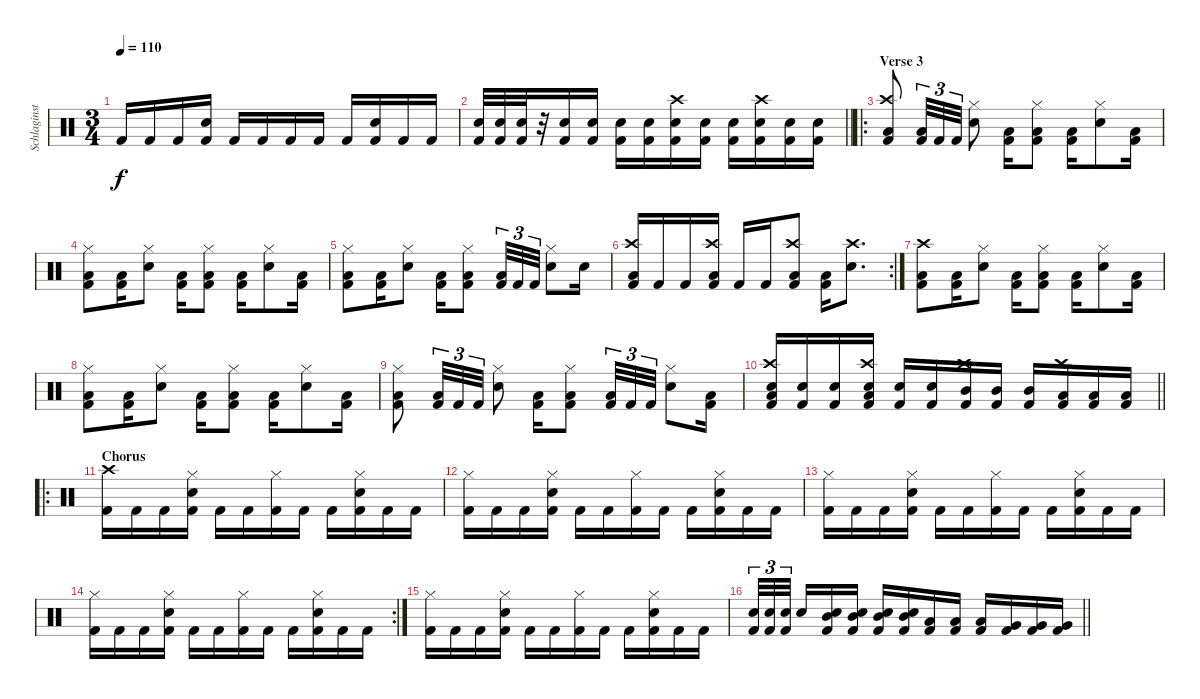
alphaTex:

\track ("Schlaginstrumente - Auswahl" "Schlaginst") {instrument percussion}
\staff {score}
\articulation defaults
\ts (3 4)
\tempo 110
\clef neutral
\ks c "Kick (hit) 2".16{dy f} "Kick (hit) 2".16 "Kick (hit) 2".16
("Snare (hit) 2" "Kick (hit) 2").16 "Kick (hit) 2".16 "Kick (hit) 2".16 "Kick (hit) 2".16 "Kick (hit) 2".16 "Kick (hit) 2".16 ("Snare (hit) 2" "Kick (hit) 2").16 "Kick (hit) 2".16 "Kick (hit) 2".16 |
\barLineRight lightlight
("Snare (hit) 2" "Kick (hit) 2").32 ("Snare (hit) 2" "Kick (hit) 2").32 ("Snare (hit) 2" "Kick (hit) 2").32 r.32 ("Snare (hit) 2" "Kick (hit) 2").16 ("Snare (hit) 2" "Kick (hit) 2").16 ("Snare (hit) 2" "Kick (hit) 2").16 ("Snare (hit) 2" "Kick (hit) 2").16 ("Crash high (hit)" "Snare (hit) 2" "Kick (hit) 2").16 ("Snare (hit) 2" "Kick (hit) 2").16 ("Snare (hit) 2" "Kick (hit) 2").16 ("Crash high (hit)" "Snare (hit) 2" "Kick (hit) 2").16 ("Snare (hit) 2" "Kick (hit) 2").16 ("Snare (hit) 2" "Kick (hit) 2").16 |
\ro
\section ("" "Verse 3")
("Crash high (hit)" "Low Tom (hit)" "Kick (hit) 2").8 ("Low Tom (hit)" "Kick (hit) 2").32{tu (3 2)} "Kick (hit) 2".32{tu (3 2)} "Kick (hit) 2".32{tu (3 2)} ("Hi-Hat (closed)" "Snare (hit) 2").8 ("Low Tom (hit)" "Kick (hit) 2").16 ("Hi-Hat (closed)" "Low Tom (hit)" "Kick (hit) 2").8 ("Low Tom (hit)" "Kick (hit) 2").16 ("Hi-Hat (closed)" "Snare (hit) 2").8 ("Low Tom (hit)" "Kick (hit) 2").16 |
("Hi-Hat (closed)" "Low Tom (hit)" "Kick (hit) 2").8 ("Low Tom (hit)" "Kick (hit) 2").16 ("Hi-Hat (closed)" "Snare (hit) 2").8 ("Low Tom (hit)" "Kick (hit) 2").16 ("Hi-Hat (closed)" "Low Tom (hit)" "Kick (hit) 2").8 ("Low Tom (hit)" "Kick (hit) 2").16 ("Hi-Hat (closed)" "Snare (hit) 2").8 ("Low Tom (hit)" "Kick (hit) 2").16 |
("Hi-Hat (closed)" "Low Tom (hit)" "Kick (hit) 2").8 ("Low Tom (hit)" "Kick (hit) 2").16 ("Hi-Hat (closed)" "Snare (hit) 2").8 ("Low Tom (hit)" "Kick (hit) 2").16 ("Hi-Hat (closed)" "Low Tom (hit)" "Kick (hit) 2").8 ("Low Tom (hit)" "Kick (hit) 2").32{tu (3 2)} "Kick (hit) 2".32{tu (3 2)} "Kick (hit) 2".32{tu (3 2)} ("Hi-Hat (closed)" "Snare (hit) 2").8 "Snare (hit) 2".16 |
\rc 2
("Crash high (hit)" "Low Tom (hit)" "Kick (hit) 2").16 "Kick (hit) 2".16 "Kick (hit) 2".16 ("Crash high (hit)" "Low Tom (hit)" "Kick (hit) 2").16 "Kick (hit) 2".16 "Kick (hit) 2".16 ("Crash high (hit)" "Low Tom (hit)" "Kick (hit) 2").8 ("Low Tom (hit)" "Kick (hit) 2").16 ("Crash high (hit)" "Snare (hit) 2").8{d} |
("Crash high (hit)" "Low Tom (hit)" "Kick (hit) 2").8 ("Low Tom (hit)" "Kick (hit) 2").16 ("Hi-Hat (closed)" "Snare (hit) 2").8 ("Low Tom (hit)" "Kick (hit) 2").16 ("Hi-Hat (closed)" "Low Tom (hit)" "Kick (hit) 2").8 ("Low Tom (hit)" "Kick (hit) 2").16 ("Hi-Hat (closed)" "Snare (hit) 2").8 ("Low Tom (hit)" "Kick (hit) 2").16 |
("Hi-Hat (closed)" "Low Tom (hit)" "Kick (hit) 2").8 ("Low Tom (hit)" "Kick (hit) 2").16 ("Hi-Hat (closed)" "Snare (hit) 2").8 ("Low Tom (hit)" "Kick (hit) 2").16 ("Hi-Hat (closed)" "Low Tom (hit)" "Kick (hit) 2").8 ("Low Tom (hit)" "Kick (hit) 2").16 ("Hi-Hat (closed)" "Snare (hit) 2").8 ("Low Tom (hit)" "Kick (hit) 2").16 |
("Hi-Hat (closed)" "Low Tom (hit)" "Kick (hit) 2").8 ("Low Tom (hit)" "Kick (hit) 2").32{tu (3 2)} "Kick (hit) 2".32{tu (3 2)} "Kick (hit) 2".32{tu (3 2)} ("Hi-Hat (closed)" "Snare (hit) 2").8 ("Low Tom (hit)" "Kick (hit) 2").16 ("Hi-Hat (closed)" "Low Tom (hit)" "Kick (hit) 2").8 ("Low Tom (hit)" "Kick (hit) 2").32{tu (3 2)} "Kick (hit) 2".32{tu (3 2)} "Kick (hit) 2".32{tu (3 2)} ("Hi-Hat (closed)" "Snare (hit) 2").8 ("Low Tom (hit)" "Kick (hit) 2").16 |
\barLineRight lightlight
("Crash high (hit)" "Snare (hit) 2" "Low Tom (hit)" "Kick (hit) 2").16 ("Snare (hit) 2" "Kick (hit) 2").16 ("Snare (hit) 2" "Kick (hit) 2").16 ("Crash high (hit)" "Snare (hit) 2" "Low Tom (hit)" "Kick (hit) 2").16 ("Snare (hit) 2" "Kick (hit) 2").16 ("Snare (hit) 2" "Kick (hit) 2").16 ("Crash high (hit)" "Mid Tom (hit)" "Kick (hit) 2").16 ("Mid Tom (hit)" "Kick (hit) 2").16 ("Mid Tom (hit)" "Kick (hit) 2").16 ("Crash high (hit)" "Low Tom (hit)" "Kick (hit) 2").16 ("Low Tom (hit)" "Kick (hit) 2").16 ("Low Tom (hit)" "Kick (hit) 2").16 |
\ro
\section ("" "Chorus")
("Crash high (hit)" "Kick (hit) 2").16 "Kick (hit) 2".16 "Kick (hit) 2".16 ("Hi-Hat (closed)" "Snare (hit) 2" "Kick (hit) 2").16 "Kick (hit) 2".16 "Kick (hit) 2".16 ("Hi-Hat (closed)" "Kick (hit) 2").16 "Kick (hit) 2".16 "Kick (hit) 2".16 ("Hi-Hat (closed)" "Snare (hit) 2" "Kick (hit) 2").16 "Kick (hit) 2".16 "Kick (hit) 2".16 |
("Hi-Hat (closed)" "Kick (hit) 2").16 "Kick (hit) 2".16 "Kick (hit) 2".16 ("Hi-Hat (closed)" "Snare (hit) 2" "Kick (hit) 2").16 "Kick (hit) 2".16 "Kick (hit) 2".16 ("Hi-Hat (closed)" "Kick (hit) 2").16 "Kick (hit) 2".16 "Kick (hit) 2".16 ("Hi-Hat (closed)" "Snare (hit) 2" "Kick (hit) 2").16 "Kick (hit) 2".16 "Kick (hit) 2".16 |
("Hi-Hat (closed)" "Kick (hit) 2").16 "Kick (hit) 2".16 "Kick (hit) 2".16 ("Hi-Hat (closed)" "Snare (hit) 2" "Kick (hit) 2").16 "Kick (hit) 2".16 "Kick (hit) 2".16 ("Hi-Hat (closed)" "Kick (hit) 2").16 "Kick (hit) 2".16 "Kick (hit) 2".16 ("Hi-Hat (closed)" "Snare (hit) 2" "Kick (hit) 2").16 "Kick (hit) 2".16 "Kick (hit) 2".16 |
\rc 2
("Hi-Hat (closed)" "Kick (hit) 2").16 "Kick (hit) 2".16 "Kick (hit) 2".16 ("Hi-Hat (closed)" "Snare (hit) 2" "Kick (hit) 2").16 "Kick (hit) 2".16 "Kick (hit) 2".16 ("Hi-Hat (closed)" "Kick (hit) 2").16 "Kick (hit) 2".16 "Kick (hit) 2".16 ("Hi-Hat (closed)" "Snare (hit) 2" "Kick (hit) 2").16 "Kick (hit) 2".16 "Kick (hit) 2".16 |
("Hi-Hat (closed)" "Kick (hit) 2").16 "Kick (hit) 2".16 "Kick (hit) 2".16 ("Hi-Hat (closed)" "Snare (hit) 2" "Kick (hit) 2").16 "Kick (hit) 2".16 "Kick (hit) 2".16 ("Hi-Hat (closed)" "Kick (hit) 2").16 "Kick (hit) 2".16 "Kick (hit) 2".16 ("Hi-Hat (closed)" "Snare (hit) 2" "Kick (hit) 2").16 "Kick (hit) 2".16 "Kick (hit) 2".16 |
\barLineRight lightlight
("Snare (hit) 2" "Kick (hit) 2").32{tu (3 2)} ("Snare (hit) 2" "Kick (hit) 2").32{tu (3 2)} ("Snare (hit) 2" "Kick (hit) 2").32{tu (3 2) beam splitsecondary} "Snare (hit) 2".16 ("Snare (hit) 2" "Mid Tom (hit)" "Kick (hit) 2").16 ("Snare (hit) 2" "Mid Tom (hit)" "Kick (hit) 2").16 ("Snare (hit) 2" "Mid Tom (hit)" "Kick (hit) 2").16 ("Snare (hit) 2" "Mid Tom (hit)" "Kick (hit) 2").16 ("Low Tom (hit)" "Kick (hit) 2").16 ("Low Tom (hit)" "Kick (hit) 2").16 ("Low Tom (hit)" "Kick (hit) 2").16 ("Very Low Tom (hit)" "Kick (hit) 2").16 ("Very Low Tom (hit)" "Kick (hit) 2").16 ("Very Low Tom (hit)" "Kick (hit) 2").16
